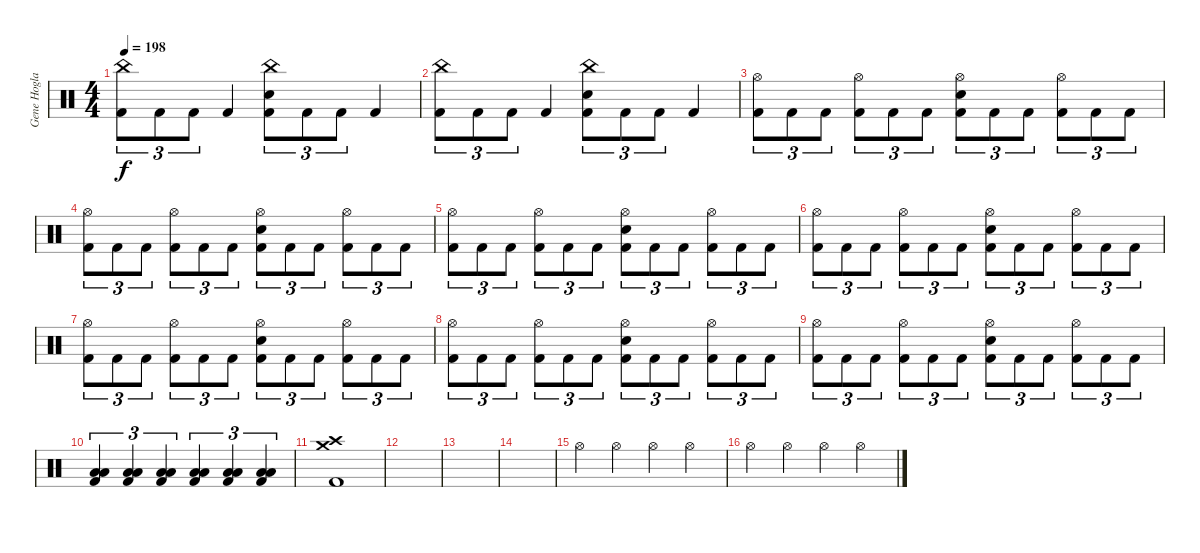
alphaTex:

\track ("Gene Hoglan" "Gene Hogla") {instrument percussion}
\staff {score}
\articulation defaults
\ts (4 4)
\tempo 198
\clef neutral
\ks c
("China (hit)" "Kick (hit) 2").8{tu (3 2) dy f} "Kick (hit) 2".8{tu (3 2)} "Kick (hit) 2".8{tu (3 2)} "Kick (hit) 2".4 ("China (hit)" "Snare (hit) 2" "Kick (hit) 2").8{tu (3 2)} "Kick (hit) 2".8{tu (3 2)} "Kick (hit) 2".8{tu (3 2)} "Kick (hit) 2".4 |
("China (hit)" "Kick (hit) 2").8{tu (3 2)} "Kick (hit) 2".8{tu (3 2)} "Kick (hit) 2".8{tu (3 2)} "Kick (hit) 2".4 ("China (hit)" "Snare (hit) 2" "Kick (hit) 2").8{tu (3 2)} "Kick (hit) 2".8{tu (3 2)} "Kick (hit) 2".8{tu (3 2)} "Kick (hit) 2".4 |
("Hi-Hat (open)" "Kick (hit) 2").8{tu (3 2)} "Kick (hit) 2".8{tu (3 2)} "Kick (hit) 2".8{tu (3 2)} ("Hi-Hat (open)" "Kick (hit) 2").8{tu (3 2)} "Kick (hit) 2".8{tu (3 2)} "Kick (hit) 2".8{tu (3 2)} ("Hi-Hat (open)" "Snare (hit) 2" "Kick (hit) 2").8{tu (3 2)} "Kick (hit) 2".8{tu (3 2)} "Kick (hit) 2".8{tu (3 2)} ("Hi-Hat (open)" "Kick (hit) 2").8{tu (3 2)} "Kick (hit) 2".8{tu (3 2)} "Kick (hit) 2".8{tu (3 2)} |
("Hi-Hat (open)" "Kick (hit) 2").8{tu (3 2)} "Kick (hit) 2".8{tu (3 2)} "Kick (hit) 2".8{tu (3 2)} ("Hi-Hat (open)" "Kick (hit) 2").8{tu (3 2)} "Kick (hit) 2".8{tu (3 2)} "Kick (hit) 2".8{tu (3 2)} ("Hi-Hat (open)" "Snare (hit) 2" "Kick (hit) 2").8{tu (3 2)} "Kick (hit) 2".8{tu (3 2)} "Kick (hit) 2".8{tu (3 2)} ("Hi-Hat (open)" "Kick (hit) 2").8{tu (3 2)} "Kick (hit) 2".8{tu (3 2)} "Kick (hit) 2".8{tu (3 2)} |
("Hi-Hat (open)" "Kick (hit) 2").8{tu (3 2)} "Kick (hit) 2".8{tu (3 2)} "Kick (hit) 2".8{tu (3 2)} ("Hi-Hat (open)" "Kick (hit) 2").8{tu (3 2)} "Kick (hit) 2".8{tu (3 2)} "Kick (hit) 2".8{tu (3 2)} ("Hi-Hat (open)" "Snare (hit) 2" "Kick (hit) 2").8{tu (3 2)} "Kick (hit) 2".8{tu (3 2)} "Kick (hit) 2".8{tu (3 2)} ("Hi-Hat (open)" "Kick (hit) 2").8{tu (3 2)} "Kick (hit) 2".8{tu (3 2)} "Kick (hit) 2".8{tu (3 2)} |
("Hi-Hat (open)" "Kick (hit) 2").8{tu (3 2)} "Kick (hit) 2".8{tu (3 2)} "Kick (hit) 2".8{tu (3 2)} ("Hi-Hat (open)" "Kick (hit) 2").8{tu (3 2)} "Kick (hit) 2".8{tu (3 2)} "Kick (hit) 2".8{tu (3 2)} ("Hi-Hat (open)" "Snare (hit) 2" "Kick (hit) 2").8{tu (3 2)} "Kick (hit) 2".8{tu (3 2)} "Kick (hit) 2".8{tu (3 2)} ("Hi-Hat (open)" "Kick (hit) 2").8{tu (3 2)} "Kick (hit) 2".8{tu (3 2)} "Kick (hit) 2".8{tu (3 2)} |
("Hi-Hat (open)" "Kick (hit) 2").8{tu (3 2)} "Kick (hit) 2".8{tu (3 2)} "Kick (hit) 2".8{tu (3 2)} ("Hi-Hat (open)" "Kick (hit) 2").8{tu (3 2)} "Kick (hit) 2".8{tu (3 2)} "Kick (hit) 2".8{tu (3 2)} ("Hi-Hat (open)" "Snare (hit) 2" "Kick (hit) 2").8{tu (3 2)} "Kick (hit) 2".8{tu (3 2)} "Kick (hit) 2".8{tu (3 2)} ("Hi-Hat (open)" "Kick (hit) 2").8{tu (3 2)} "Kick (hit) 2".8{tu (3 2)} "Kick (hit) 2".8{tu (3 2)} |
("Hi-Hat (open)" "Kick (hit) 2").8{tu (3 2)} "Kick (hit) 2".8{tu (3 2)} "Kick (hit) 2".8{tu (3 2)} ("Hi-Hat (open)" "Kick (hit) 2").8{tu (3 2)} "Kick (hit) 2".8{tu (3 2)} "Kick (hit) 2".8{tu (3 2)} ("Hi-Hat (open)" "Snare (hit) 2" "Kick (hit) 2").8{tu (3 2)} "Kick (hit) 2".8{tu (3 2)} "Kick (hit) 2".8{tu (3 2)} ("Hi-Hat (open)" "Kick (hit) 2").8{tu (3 2)} "Kick (hit) 2".8{tu (3 2)} "Kick (hit) 2".8{tu (3 2)} |
("Hi-Hat (open)" "Kick (hit) 2").8{tu (3 2)} "Kick (hit) 2".8{tu (3 2)} "Kick (hit) 2".8{tu (3 2)} ("Hi-Hat (open)" "Kick (hit) 2").8{tu (3 2)} "Kick (hit) 2".8{tu (3 2)} "Kick (hit) 2".8{tu (3 2)} ("Hi-Hat (open)" "Snare (hit) 2" "Kick (hit) 2").8{tu (3 2)} "Kick (hit) 2".8{tu (3 2)} "Kick (hit) 2".8{tu (3 2)} ("Hi-Hat (open)" "Kick (hit) 2").8{tu (3 2)} "Kick (hit) 2".8{tu (3 2)} "Kick (hit) 2".8{tu (3 2)} |
("Low Floor Tom (hit)" "Low Tom (hit)" "Kick (hit) 2").4{tu (3 2)} ("Low Floor Tom (hit)" "Low Tom (hit)" "Kick (hit) 2").4{tu (3 2)} ("Low Floor Tom (hit)" "Low Tom (hit)" "Kick (hit) 2").4{tu (3 2)} ("Low Floor Tom (hit)" "Low Tom (hit)" "Kick (hit) 2").4{tu (3 2)} ("Low Floor Tom (hit)" "Low Tom (hit)" "Kick (hit) 2").4{tu (3 2)} ("Low Floor Tom (hit)" "Low Tom (hit)" "Kick (hit) 2").4{tu (3 2)} |
("Crash high (hit)" "Crash medium (hit)" "Kick (hit) 2").1 |
|
|
|
"Hi-Hat (open)".4 "Hi-Hat (open)".4 "Hi-Hat (open)".4 "Hi-Hat (open)".4 |
"Hi-Hat (open)".4 "Hi-Hat (open)".4 "Hi-Hat (open)".4 "Hi-Hat (open)".4
